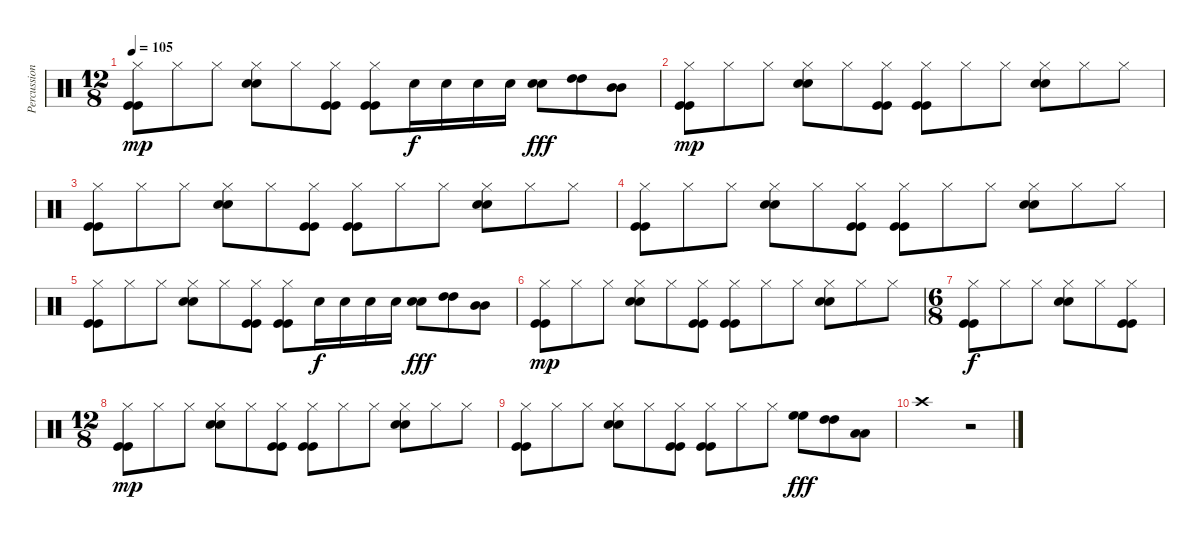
\track ("Percussion" "Percussion") {instrument percussion}
\staff {score}
\articulation defaults
\ts (12 8)
\tempo 105
\clef neutral
\ks c
("Kick (hit)" "Kick (hit)" "Hi-Hat (closed)").8{dy mp} "Hi-Hat (closed)".8 "Hi-Hat (closed)".8 ("Snare (hit) 2" "Snare (hit) 2" "Hi-Hat (closed)").8 "Hi-Hat (closed)".8 ("Kick (hit)" "Kick (hit)" "Hi-Hat (closed)").8 ("Kick (hit)" "Kick (hit)" "Hi-Hat (closed)").8 "Snare (hit) 2".16{dy f} "Snare (hit) 2".16 "Snare (hit) 2".16 "Snare (hit) 2".16 ("Snare (hit) 2" "Snare (hit) 2").8{dy fff} ("High Tom (hit)" "High Tom (hit)").8 ("Mid Tom (hit)" "Mid Tom (hit)").8 |
("Kick (hit)" "Kick (hit)" "Hi-Hat (closed)").8{dy mp} "Hi-Hat (closed)".8 "Hi-Hat (closed)".8 ("Snare (hit) 2" "Snare (hit) 2" "Hi-Hat (closed)").8 "Hi-Hat (closed)".8 ("Kick (hit)" "Kick (hit)" "Hi-Hat (closed)").8 ("Kick (hit)" "Kick (hit)" "Hi-Hat (closed)").8 "Hi-Hat (closed)".8 "Hi-Hat (closed)".8 ("Snare (hit) 2" "Snare (hit) 2" "Hi-Hat (closed)").8 "Hi-Hat (closed)".8 "Hi-Hat (closed)".8 |
("Kick (hit)" "Kick (hit)" "Hi-Hat (closed)").8 "Hi-Hat (closed)".8 "Hi-Hat (closed)".8 ("Snare (hit) 2" "Snare (hit) 2" "Hi-Hat (closed)").8 "Hi-Hat (closed)".8 ("Kick (hit)" "Kick (hit)" "Hi-Hat (closed)").8 ("Kick (hit)" "Kick (hit)" "Hi-Hat (closed)").8 "Hi-Hat (closed)".8 "Hi-Hat (closed)".8 ("Snare (hit) 2" "Snare (hit) 2" "Hi-Hat (closed)").8 "Hi-Hat (closed)".8 "Hi-Hat (closed)".8 |
("Kick (hit)" "Kick (hit)" "Hi-Hat (closed)").8 "Hi-Hat (closed)".8 "Hi-Hat (closed)".8 ("Snare (hit) 2" "Snare (hit) 2" "Hi-Hat (closed)").8 "Hi-Hat (closed)".8 ("Kick (hit)" "Kick (hit)" "Hi-Hat (closed)").8 ("Kick (hit)" "Kick (hit)" "Hi-Hat (closed)").8 "Hi-Hat (closed)".8 "Hi-Hat (closed)".8 ("Snare (hit) 2" "Snare (hit) 2" "Hi-Hat (closed)").8 "Hi-Hat (closed)".8 "Hi-Hat (closed)".8 |
("Kick (hit)" "Kick (hit)" "Hi-Hat (closed)").8 "Hi-Hat (closed)".8 "Hi-Hat (closed)".8 ("Snare (hit) 2" "Snare (hit) 2" "Hi-Hat (closed)").8 "Hi-Hat (closed)".8 ("Kick (hit)" "Kick (hit)" "Hi-Hat (closed)").8 ("Kick (hit)" "Kick (hit)" "Hi-Hat (closed)").8 "Snare (hit) 2".16{dy f} "Snare (hit) 2".16 "Snare (hit) 2".16 "Snare (hit) 2".16 ("Snare (hit) 2" "Snare (hit) 2").8{dy fff} ("High Tom (hit)" "High Tom (hit)").8 ("Mid Tom (hit)" "Mid Tom (hit)").8 |
("Kick (hit)" "Kick (hit)" "Hi-Hat (closed)").8{dy mp} "Hi-Hat (closed)".8 "Hi-Hat (closed)".8 ("Snare (hit) 2" "Snare (hit) 2" "Hi-Hat (closed)").8 "Hi-Hat (closed)".8 ("Kick (hit)" "Kick (hit)" "Hi-Hat (closed)").8 ("Kick (hit)" "Kick (hit)" "Hi-Hat (closed)").8 "Hi-Hat (closed)".8 "Hi-Hat (closed)".8 ("Snare (hit) 2" "Snare (hit) 2" "Hi-Hat (closed)").8 "Hi-Hat (closed)".8 "Hi-Hat (closed)".8 |
\ts (6 8)
("Kick (hit)" "Kick (hit)" "Hi-Hat (closed)").8{dy f} "Hi-Hat (closed)".8 "Hi-Hat (closed)".8 ("Snare (hit) 2" "Snare (hit) 2" "Hi-Hat (closed)").8 "Hi-Hat (closed)".8 ("Kick (hit)" "Kick (hit)" "Hi-Hat (closed)").8 |
\ts (12 8)
("Kick (hit)" "Kick (hit)" "Hi-Hat (closed)").8{dy mp} "Hi-Hat (closed)".8 "Hi-Hat (closed)".8 ("Snare (hit) 2" "Snare (hit) 2" "Hi-Hat (closed)").8 "Hi-Hat (closed)".8 ("Kick (hit)" "Kick (hit)" "Hi-Hat (closed)").8 ("Kick (hit)" "Kick (hit)" "Hi-Hat (closed)").8 "Hi-Hat (closed)".8 "Hi-Hat (closed)".8 ("Snare (hit) 2" "Snare (hit) 2" "Hi-Hat (closed)").8 "Hi-Hat (closed)".8 "Hi-Hat (closed)".8 |
("Kick (hit)" "Kick (hit)" "Hi-Hat (closed)").8 "Hi-Hat (closed)".8 "Hi-Hat (closed)".8 ("Snare (hit) 2" "Snare (hit) 2" "Hi-Hat (closed)").8 "Hi-Hat (closed)".8 ("Kick (hit)" "Kick (hit)" "Hi-Hat (closed)").8 ("Kick (hit)" "Kick (hit)" "Hi-Hat (closed)").8 "Hi-Hat (closed)".8 "Hi-Hat (closed)".8 ("High Floor Tom (hit)" "High Floor Tom (hit)").8{dy fff} ("High Tom (hit)" "High Tom (hit)").8 ("Low Tom (hit)" "Low Tom (hit)").8 |
"Crash high (hit)".1 r.2
